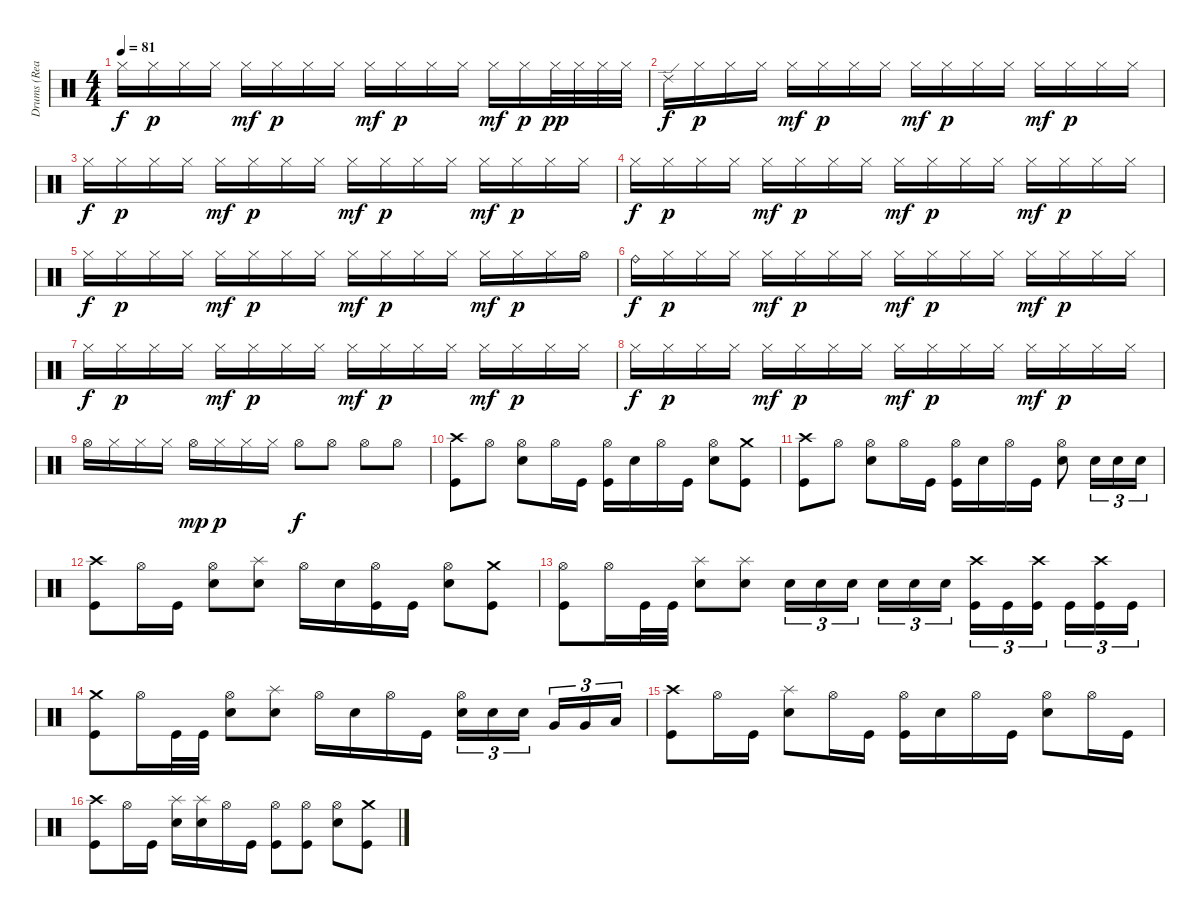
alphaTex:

\track ("Drums (Real)" "Drums (Rea") {instrument percussion}
\staff {score}
\articulation defaults
\ts (4 4)
\tempo 81
\clef neutral
\ks c "Hi-Hat (closed)".16{dy f} "Hi-Hat (closed)".16{dy p} "Hi-Hat (closed)".16 "Hi-Hat (closed)".16 "Hi-Hat (closed)".16{dy mf} "Hi-Hat (closed)".16{dy p} "Hi-Hat (closed)".16 "Hi-Hat (closed)".16 "Hi-Hat (closed)".16{dy mf} "Hi-Hat (closed)".16{dy p} "Hi-Hat (closed)".16 "Hi-Hat (closed)".16 "Hi-Hat (closed)".16{dy mf} "Hi-Hat (closed)".16{dy p} "Hi-Hat (closed)".32{dy pp} "Hi-Hat (closed)".32 "Hi-Hat (closed)".32 "Hi-Hat (closed)".32
|
"Ride (edge) 2".16{dy f} "Hi-Hat (closed)".16{dy p} "Hi-Hat (closed)".16 "Hi-Hat (closed)".16 "Hi-Hat (closed)".16{dy mf} "Hi-Hat (closed)".16{dy p} "Hi-Hat (closed)".16 "Hi-Hat (closed)".16 "Hi-Hat (closed)".16{dy mf} "Hi-Hat (closed)".16{dy p} "Hi-Hat (closed)".16 "Hi-Hat (closed)".16 "Hi-Hat (closed)".16{dy mf} "Hi-Hat (closed)".16{dy p} "Hi-Hat (closed)".16 "Hi-Hat (closed)".16 |
"Hi-Hat (closed)".16{dy f} "Hi-Hat (closed)".16{dy p} "Hi-Hat (closed)".16 "Hi-Hat (closed)".16 "Hi-Hat (closed)".16{dy mf} "Hi-Hat (closed)".16{dy p} "Hi-Hat (closed)".16 "Hi-Hat (closed)".16 "Hi-Hat (closed)".16{dy mf} "Hi-Hat (closed)".16{dy p} "Hi-Hat (closed)".16 "Hi-Hat (closed)".16 "Hi-Hat (closed)".16{dy mf} "Hi-Hat (closed)".16{dy p} "Hi-Hat (closed)".16 "Hi-Hat (closed)".16 |
"Hi-Hat (closed)".16{dy f} "Hi-Hat (closed)".16{dy p} "Hi-Hat (closed)".16 "Hi-Hat (closed)".16 "Hi-Hat (closed)".16{dy mf} "Hi-Hat (closed)".16{dy p} "Hi-Hat (closed)".16 "Hi-Hat (closed)".16 "Hi-Hat (closed)".16{dy mf} "Hi-Hat (closed)".16{dy p} "Hi-Hat (closed)".16 "Hi-Hat (closed)".16 "Hi-Hat (closed)".16{dy mf} "Hi-Hat (closed)".16{dy p} "Hi-Hat (closed)".16 "Hi-Hat (closed)".16 |
"Hi-Hat (closed)".16{dy f} "Hi-Hat (closed)".16{dy p} "Hi-Hat (closed)".16 "Hi-Hat (closed)".16 "Hi-Hat (closed)".16{dy mf} "Hi-Hat (closed)".16{dy p} "Hi-Hat (closed)".16 "Hi-Hat (closed)".16 "Hi-Hat (closed)".16{dy mf} "Hi-Hat (closed)".16{dy p} "Hi-Hat (closed)".16 "Hi-Hat (closed)".16 "Hi-Hat (closed)".16{dy mf} "Hi-Hat (closed)".16{dy p} "Hi-Hat (closed)".16 "Hi-Hat (open)".16 |
"Ride (bell)".16{dy f} "Hi-Hat (closed)".16{dy p} "Hi-Hat (closed)".16 "Hi-Hat (closed)".16 "Hi-Hat (closed)".16{dy mf} "Hi-Hat (closed)".16{dy p} "Hi-Hat (closed)".16 "Hi-Hat (closed)".16 "Hi-Hat (closed)".16{dy mf} "Hi-Hat (closed)".16{dy p} "Hi-Hat (closed)".16 "Hi-Hat (closed)".16 "Hi-Hat (closed)".16{dy mf} "Hi-Hat (closed)".16{dy p} "Hi-Hat (closed)".16 "Hi-Hat (closed)".16 |
"Hi-Hat (closed)".16{dy f} "Hi-Hat (closed)".16{dy p} "Hi-Hat (closed)".16 "Hi-Hat (closed)".16 "Hi-Hat (closed)".16{dy mf} "Hi-Hat (closed)".16{dy p} "Hi-Hat (closed)".16 "Hi-Hat (closed)".16 "Hi-Hat (closed)".16{dy mf} "Hi-Hat (closed)".16{dy p} "Hi-Hat (closed)".16 "Hi-Hat (closed)".16 "Hi-Hat (closed)".16{dy mf} "Hi-Hat (closed)".16{dy p} "Hi-Hat (closed)".16 "Hi-Hat (closed)".16 |
"Hi-Hat (closed)".16{dy f} "Hi-Hat (closed)".16{dy p} "Hi-Hat (closed)".16 "Hi-Hat (closed)".16 "Hi-Hat (closed)".16{dy mf} "Hi-Hat (closed)".16{dy p} "Hi-Hat (closed)".16 "Hi-Hat (closed)".16 "Hi-Hat (closed)".16{dy mf} "Hi-Hat (closed)".16{dy p} "Hi-Hat (closed)".16 "Hi-Hat (closed)".16 "Hi-Hat (closed)".16{dy mf} "Hi-Hat (closed)".16{dy p} "Hi-Hat (closed)".16 "Hi-Hat (closed)".16 |
"Hi-Hat (open)".16 "Hi-Hat (closed)".16 "Hi-Hat (closed)".16 "Hi-Hat (closed)".16 "Hi-Hat (open)".16{dy mp} "Hi-Hat (closed)".16{dy p} "Hi-Hat (closed)".16 "Hi-Hat (closed)".16 "Hi-Hat (open)".8{dy f} "Hi-Hat (open)".8 "Hi-Hat (open)".8 "Hi-Hat (open)".8 |
("Crash high (hit)" "Kick (hit)").8 "Hi-Hat (open)".8 ("Hi-Hat (open)" "Snare (hit) 2").8 "Hi-Hat (open)".16 "Kick (hit)".16 ("Hi-Hat (open)" "Kick (hit)").16 "Snare (hit) 2".16 "Hi-Hat (open)".16 "Kick (hit)".16 ("Hi-Hat (open)" "Snare (hit) 2").8 ("Crash medium (hit)" "Kick (hit)").8 |
("Crash high (hit)" "Kick (hit)").8 "Hi-Hat (open)".8 ("Hi-Hat (open)" "Snare (hit) 2").8 "Hi-Hat (open)".16 "Kick (hit)".16 ("Hi-Hat (open)" "Kick (hit)").16 "Snare (hit) 2".16 "Hi-Hat (open)".16 "Kick (hit)".16 ("Hi-Hat (open)" "Snare (hit) 2").8 "Snare (hit) 2".16{tu (3 2)} "Snare (hit) 2".16{tu (3 2)} "Snare (hit) 2".16{tu (3 2)} |
("Crash high (hit)" "Kick (hit)").8 "Hi-Hat (open)".16 "Kick (hit)".16 ("Hi-Hat (open)" "Snare (hit) 2").8 ("Splash (hit)" "Snare (hit) 2").8 "Hi-Hat (open)".16 "Snare (hit) 2".16 ("Hi-Hat (open)" "Kick (hit)").16 "Kick (hit)".16 ("Hi-Hat (open)" "Snare (hit) 2").8 ("Crash medium (hit)" "Kick (hit)").8 |
("Hi-Hat (open)" "Kick (hit)").8 "Hi-Hat (open)".16 "Kick (hit)".32 "Kick (hit)".32 ("Splash (hit)" "Snare (hit) 2").8 ("Splash (hit)" "Snare (hit) 2").8 "Snare (hit) 2".16{tu (3 2)} "Snare (hit) 2".16{tu (3 2)} "Snare (hit) 2".16{tu (3 2)} "Snare (hit) 2".16{tu (3 2)} "Snare (hit) 2".16{tu (3 2)} "Snare (hit) 2".16{tu (3 2)} ("Crash high (hit)" "Kick (hit)").16{tu (3 2)} "Kick (hit)".16{tu (3 2)} ("Crash high (hit)" "Kick (hit)").16{tu (3 2)} "Kick (hit)".16{tu (3 2)} ("Crash high (hit)" "Kick (hit)").16{tu (3 2)} "Kick (hit)".16{tu (3 2)} |
("Crash medium (hit)" "Kick (hit)").8 "Hi-Hat (open)".16 "Kick (hit)".32 "Kick (hit)".32 ("Hi-Hat (open)" "Snare (hit) 2").8 ("Splash (hit)" "Snare (hit) 2").8 "Hi-Hat (open)".16 "Snare (hit) 2".16 "Hi-Hat (open)".16 "Kick (hit)".16 ("Hi-Hat (open)" "Snare (hit) 2").16{tu (3 2)} "Snare (hit) 2".16{tu (3 2)} "Snare (hit) 2".16{tu (3 2)} "Very Low Tom (hit)".16{tu (3 2)} "Very Low Tom (hit)".16{tu (3 2)} "Low Floor Tom (hit)".16{tu (3 2)} |
("Crash high (hit)" "Kick (hit)").8 "Hi-Hat (open)".16 "Kick (hit)".16 ("Splash (hit)" "Snare (hit) 2").8 "Hi-Hat (open)".16 "Kick (hit)".16 ("Hi-Hat (open)" "Kick (hit)").16 "Snare (hit) 2".16 "Hi-Hat (open)".16 "Kick (hit)".16 ("Hi-Hat (open)" "Snare (hit) 2").8 "Hi-Hat (open)".16 "Kick (hit)".16 |
("Crash high (hit)" "Kick (hit)").8 "Hi-Hat (open)".16 "Kick (hit)".16 ("Splash (hit)" "Snare (hit) 2").16 ("Splash (hit)" "Snare (hit) 2").16 "Hi-Hat (open)".16 "Kick (hit)".16 ("Hi-Hat (open)" "Kick (hit)").8 ("Hi-Hat (open)" "Kick (hit)").8 ("Hi-Hat (open)" "Snare (hit) 2").8 ("Crash medium (hit)" "Kick (hit)").8
